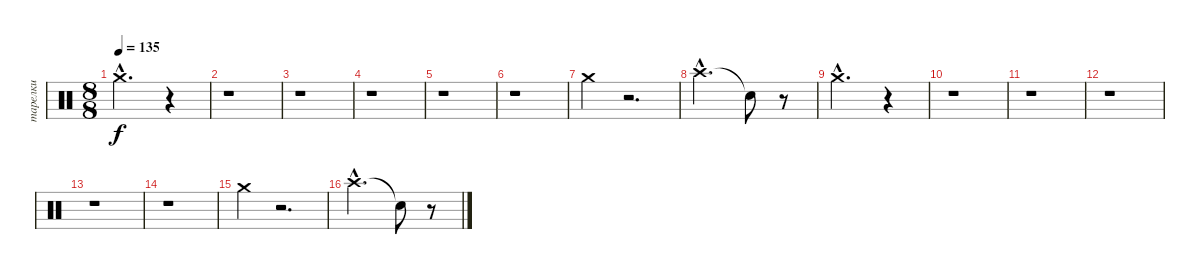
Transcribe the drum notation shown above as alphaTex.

\track ("тарелки" "тарелки") {instrument percussion}
\staff {score}
\articulation defaults
\ts (8 8)
\tempo 135
\clef neutral
\ks c "Crash medium (hit)"{hac}.2{d dy f}
r.4 |
r.1 |
r.1 |
r.1 |
r.1 |
r.1 |
"Crash medium (hit)".4 r.2{d} |
"Crash high (hit)"{hac}.2{d} "Snare (hit)"{t}.8 r.8 |
"Crash medium (hit)"{hac}.2{d} r.4 |
r.1 |
r.1 |
r.1 |
r.1 |
r.1 |
"Crash medium (hit)".4 r.2{d} |
"Crash high (hit)"{hac}.2{d} "Snare (hit)"{t}.8 r.8
